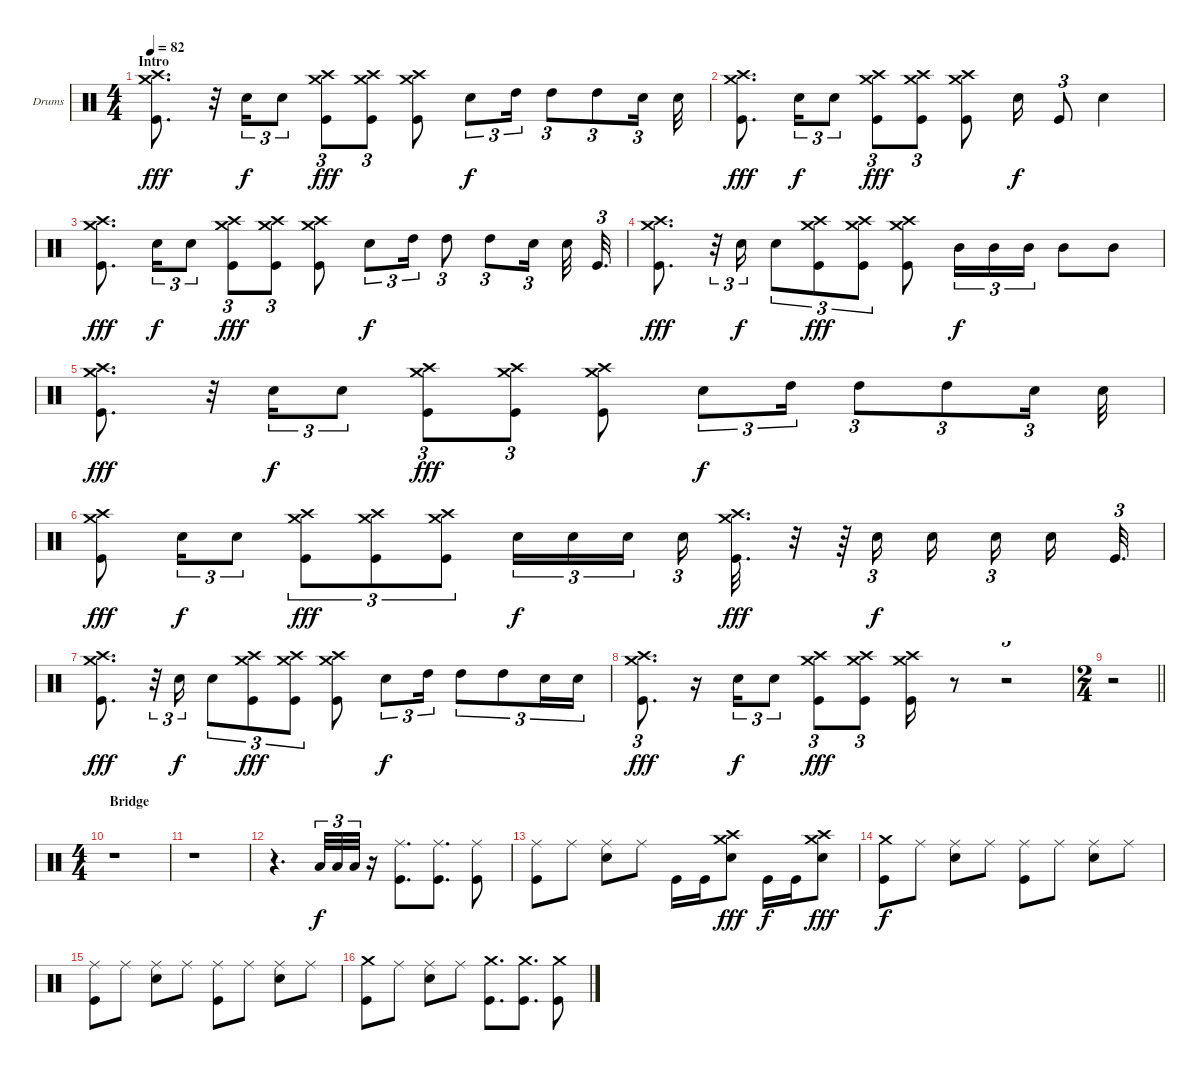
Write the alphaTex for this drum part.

\bracketExtendMode groupsimilarinstruments
\firstSystemTrackNameOrientation horizontal
\otherSystemsTrackNameOrientation horizontal
\track ("Drumkit" "Drums") {instrument percussion}
\staff {score}
\articulation defaults
\ts (4 4)
\beaming (8 2 2 2 2)
\section ("" "Intro")
\tempo 82
\clef neutral
\ks c
("Kick (hit)" "Crash medium (hit)" "Crash high (hit)").8{d dy fff} r.32 "Snare (hit) 2".16{tu (3 2) dy f} "Snare (hit) 2".8{tu (3 2)} ("Kick (hit)" "Crash medium (hit)" "Crash high (hit)").8{tu (3 2) dy fff} ("Kick (hit)" "Crash medium (hit)" "Crash high (hit)").8{tu (3 2)} ("Kick (hit)" "Crash medium (hit)" "Crash high (hit)").8 "Snare (hit) 2".8{tu (3 2) dy f} "High Tom (hit)".16{tu (3 2)} "High Tom (hit)".8{tu (3 2)} "High Tom (hit)".8{tu (3 2)} "Snare (hit) 2".16{tu (3 2)} "Snare (hit) 2".32 |
("Kick (hit)" "Crash medium (hit)" "Crash high (hit)").8{d dy fff} "Snare (hit) 2".16{tu (3 2) dy f} "Snare (hit) 2".8{tu (3 2)} ("Kick (hit)" "Crash medium (hit)" "Crash high (hit)").8{tu (3 2) dy fff} ("Kick (hit)" "Crash medium (hit)" "Crash high (hit)").8{tu (3 2)} ("Kick (hit)" "Crash medium (hit)" "Crash high (hit)").8 "Snare (hit) 2".16{dy f} "Kick (hit)".8{tu (3 2)} "Snare (hit) 2".4 |
("Kick (hit)" "Crash medium (hit)" "Crash high (hit)").8{d dy fff} "Snare (hit) 2".16{tu (3 2) dy f} "Snare (hit) 2".8{tu (3 2)} ("Kick (hit)" "Crash medium (hit)" "Crash high (hit)").8{tu (3 2) dy fff} ("Kick (hit)" "Crash medium (hit)" "Crash high (hit)").8{tu (3 2)} ("Kick (hit)" "Crash medium (hit)" "Crash high (hit)").8 "Snare (hit) 2".8{tu (3 2) dy f} "High Tom (hit)".16{tu (3 2)} "High Tom (hit)".8{tu (3 2)} "High Tom (hit)".8{tu (3 2)} "Snare (hit) 2".16{tu (3 2)} "Snare (hit) 2".32 "Kick (hit)".32{d tu (3 2)} |
("Kick (hit)" "Crash medium (hit)" "Crash high (hit)").8{d dy fff} r.32{tu (3 2)} "Snare (hit) 2".16{tu (3 2) dy f} "Snare (hit) 2".8{tu (3 2)} ("Kick (hit)" "Crash medium (hit)" "Crash high (hit)").8{tu (3 2) dy fff} ("Kick (hit)" "Crash medium (hit)" "Crash high (hit)").8{tu (3 2)} ("Kick (hit)" "Crash medium (hit)" "Crash high (hit)").8 "Mid Tom (hit)".16{tu (3 2) dy f} "Mid Tom (hit)".16{tu (3 2)} "Mid Tom (hit)".16{tu (3 2)} "Mid Tom (hit)".8 "Mid Tom (hit)".8 |
("Kick (hit)" "Crash medium (hit)" "Crash high (hit)").8{d dy fff} r.32 "Snare (hit) 2".16{tu (3 2) dy f} "Snare (hit) 2".8{tu (3 2)} ("Kick (hit)" "Crash medium (hit)" "Crash high (hit)").8{tu (3 2) dy fff} ("Kick (hit)" "Crash medium (hit)" "Crash high (hit)").8{tu (3 2)} ("Kick (hit)" "Crash medium (hit)" "Crash high (hit)").8 "Snare (hit) 2".8{tu (3 2) dy f} "High Tom (hit)".16{tu (3 2)} "High Tom (hit)".8{tu (3 2)} "High Tom (hit)".8{tu (3 2)} "Snare (hit) 2".16{tu (3 2)} "Snare (hit) 2".32 |
("Kick (hit)" "Crash medium (hit)" "Crash high (hit)").8{dy fff} "Snare (hit) 2".16{tu (3 2) dy f} "Snare (hit) 2".8{tu (3 2)} ("Kick (hit)" "Crash high (hit)" "Crash medium (hit)").8{tu (3 2) dy fff} ("Kick (hit)" "Crash medium (hit)" "Crash high (hit)").8{tu (3 2)} ("Kick (hit)" "Crash medium (hit)" "Crash high (hit)").8{tu (3 2)} "Snare (hit) 2".16{tu (3 2) dy f} "Snare (hit) 2".16{tu (3 2)} "Snare (hit) 2".16{tu (3 2)} "Snare (hit) 2".16{tu (3 2)} ("Kick (hit)" "Crash high (hit)" "Crash medium (hit)").32{d dy fff} r.32 r.64 "Snare (hit) 2".16{tu (3 2) dy f} "Snare (hit) 2".16 "Snare (hit) 2".16{tu (3 2)} "Snare (hit) 2".16 "Kick (hit)".32{d tu (3 2)} |
("Crash medium (hit)" "Crash high (hit)" "Kick (hit)").8{d dy fff} r.32{tu (3 2)} "Snare (hit) 2".16{tu (3 2) dy f} "Snare (hit) 2".8{tu (3 2)} ("Kick (hit)" "Crash medium (hit)" "Crash high (hit)").8{tu (3 2) dy fff} ("Kick (hit)" "Crash medium (hit)" "Crash high (hit)").8{tu (3 2)} ("Kick (hit)" "Crash medium (hit)" "Crash high (hit)").8 "Snare (hit) 2".8{tu (3 2) dy f} "High Tom (hit)".16{tu (3 2)} "High Tom (hit)".8{tu (3 2)} "High Tom (hit)".8{tu (3 2)} "Snare (hit) 2".16{tu (3 2)} "Snare (hit) 2".16{tu (3 2)} |
("Kick (hit)" "Crash medium (hit)" "Crash high (hit)").8{d tu (3 2) dy fff} r.16 "Snare (hit) 2".16{tu (3 2) dy f} "Snare (hit) 2".8{tu (3 2)} ("Kick (hit)" "Crash medium (hit)" "Crash high (hit)").8{tu (3 2) dy fff} ("Kick (hit)" "Crash medium (hit)" "Crash high (hit)").8{tu (3 2)} ("Kick (hit)" "Crash high (hit)" "Crash medium (hit)").16 r.8 r.2{tu (3 2)} |
\ts (2 4)
\beaming (8 2 2)
\barLineRight lightlight
r.2 |
\ts (4 4)
\beaming (8 2 2 2 2)
\section ("" "Bridge")
r.1 |
r.1 |
r.4{d} "Low Tom (hit)".32{tu (3 2) dy f} "Low Tom (hit)".32{tu (3 2)} "Low Tom (hit)".32{tu (3 2)} r.16 ("Kick (hit)" "Ride (middle)").8{d} ("Kick (hit)" "Ride (middle)").8{d} ("Kick (hit)" "Ride (middle)").8 |
("Kick (hit)" "Ride (middle)").8 "Ride (middle)".8 ("Snare (hit) 2" "Ride (middle)").8 "Ride (middle)".8 "Kick (hit)".16 "Kick (hit)".16 ("Snare (hit) 2" "Crash medium (hit)" "Crash high (hit)").8{dy fff} "Kick (hit)".16{dy f} "Kick (hit)".16 ("Snare (hit) 2" "Crash medium (hit)" "Crash high (hit)").8{dy fff} |
("Kick (hit)" "Crash medium (hit)").8{dy f} "Ride (middle)".8 ("Snare (hit) 2" "Ride (middle)").8 "Ride (middle)".8 ("Kick (hit)" "Ride (middle)").8 "Ride (middle)".8 ("Snare (hit) 2" "Ride (middle)").8 "Ride (middle)".8 |
("Kick (hit)" "Ride (middle)").8 "Ride (middle)".8 ("Snare (hit) 2" "Ride (middle)").8 "Ride (middle)".8 ("Kick (hit)" "Ride (middle)").8 "Ride (middle)".8 ("Snare (hit) 2" "Ride (middle)").8 "Ride (middle)".8 |
("Kick (hit)" "Crash medium (hit)").8 "Ride (middle)".8 ("Snare (hit) 2" "Ride (middle)").8 "Ride (middle)".8 ("Kick (hit)" "Crash medium (hit)").8{d} ("Kick (hit)" "Crash medium (hit)").8{d} ("Kick (hit)" "Crash medium (hit)").8
